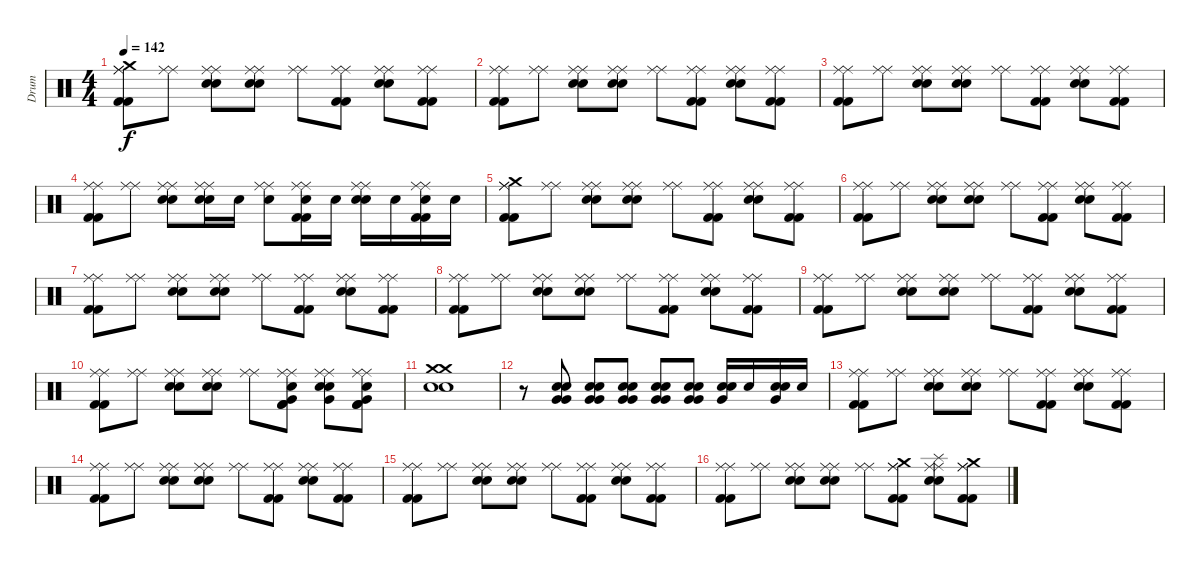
\track ("Drum" "Drum") {instrument percussion}
\staff {score}
\articulation defaults
\ts (4 4)
\tempo 142
\clef neutral
\ks c
("Kick (hit) 2" "Ride (middle)" "Crash medium (hit)" "Ride (middle)" "Kick (hit) 2").8{dy f} ("Ride (middle)" "Ride (middle)").8 ("Electric Snare (hit)" "Ride (middle)" "Electric Snare (hit)" "Ride (middle)").8 ("Electric Snare (hit)" "Ride (middle)" "Electric Snare (hit)" "Ride (middle)").8 ("Ride (middle)" "Ride (middle)").8 ("Ride (middle)" "Kick (hit) 2" "Ride (middle)" "Kick (hit) 2").8 ("Ride (middle)" "Electric Snare (hit)" "Ride (middle)" "Electric Snare (hit)").8 ("Ride (middle)" "Kick (hit) 2" "Ride (middle)" "Kick (hit) 2").8 |
("Kick (hit) 2" "Ride (middle)" "Ride (middle)" "Kick (hit) 2").8 ("Ride (middle)" "Ride (middle)").8 ("Electric Snare (hit)" "Ride (middle)" "Electric Snare (hit)" "Ride (middle)").8 ("Electric Snare (hit)" "Ride (middle)" "Electric Snare (hit)" "Ride (middle)").8 ("Ride (middle)" "Ride (middle)").8 ("Ride (middle)" "Kick (hit) 2" "Ride (middle)" "Kick (hit) 2").8 ("Ride (middle)" "Electric Snare (hit)" "Ride (middle)" "Electric Snare (hit)").8 ("Ride (middle)" "Kick (hit) 2" "Ride (middle)" "Kick (hit) 2").8 |
("Kick (hit) 2" "Ride (middle)" "Ride (middle)" "Kick (hit) 2").8 ("Ride (middle)" "Ride (middle)").8 ("Electric Snare (hit)" "Ride (middle)" "Electric Snare (hit)" "Ride (middle)").8 ("Electric Snare (hit)" "Ride (middle)" "Electric Snare (hit)" "Ride (middle)").8 ("Ride (middle)" "Ride (middle)").8 ("Ride (middle)" "Kick (hit) 2" "Ride (middle)" "Kick (hit) 2").8 ("Ride (middle)" "Electric Snare (hit)" "Ride (middle)" "Electric Snare (hit)").8 ("Ride (middle)" "Kick (hit) 2" "Ride (middle)" "Kick (hit) 2").8 |
("Ride (middle)" "Kick (hit) 2" "Kick (hit) 2" "Ride (middle)").8 ("Ride (middle)" "Ride (middle)").8 ("Electric Snare (hit)" "Ride (middle)" "Electric Snare (hit)" "Ride (middle)").8 ("Ride (middle)" "Electric Snare (hit)" "Electric Snare (hit)" "Ride (middle)").16 "Electric Snare (hit)".16 ("Ride (middle)" "Electric Snare (hit)" "Ride (middle)").8 ("Ride (middle)" "Kick (hit) 2" "Electric Snare (hit)" "Ride (middle)" "Kick (hit) 2").16 "Electric Snare (hit)".16 ("Ride (middle)" "Electric Snare (hit)" "Ride (middle)" "Electric Snare (hit)").16 "Electric Snare (hit)".16 ("Ride (middle)" "Kick (hit) 2" "Electric Snare (hit)" "Ride (middle)" "Kick (hit) 2").16 "Electric Snare (hit)".16 |
("Crash medium (hit)" "Ride (middle)" "Kick (hit) 2" "Kick (hit) 2" "Ride (middle)").8 ("Ride (middle)" "Ride (middle)").8 ("Electric Snare (hit)" "Ride (middle)" "Electric Snare (hit)" "Ride (middle)").8 ("Electric Snare (hit)" "Ride (middle)" "Electric Snare (hit)" "Ride (middle)").8 ("Ride (middle)" "Ride (middle)").8 ("Ride (middle)" "Kick (hit) 2" "Ride (middle)" "Kick (hit) 2").8 ("Ride (middle)" "Electric Snare (hit)" "Ride (middle)" "Electric Snare (hit)").8 ("Ride (middle)" "Kick (hit) 2" "Ride (middle)" "Kick (hit) 2").8 |
("Ride (middle)" "Kick (hit) 2" "Kick (hit) 2" "Ride (middle)").8 ("Ride (middle)" "Ride (middle)").8 ("Electric Snare (hit)" "Ride (middle)" "Electric Snare (hit)" "Ride (middle)").8 ("Electric Snare (hit)" "Ride (middle)" "Electric Snare (hit)" "Ride (middle)").8 ("Ride (middle)" "Ride (middle)").8 ("Ride (middle)" "Kick (hit) 2" "Ride (middle)" "Kick (hit) 2").8 ("Ride (middle)" "Electric Snare (hit)" "Ride (middle)" "Electric Snare (hit)").8 ("Ride (middle)" "Kick (hit) 2" "Ride (middle)" "Kick (hit) 2").8 |
("Ride (middle)" "Kick (hit) 2" "Kick (hit) 2" "Ride (middle)").8 ("Ride (middle)" "Ride (middle)").8 ("Electric Snare (hit)" "Ride (middle)" "Electric Snare (hit)" "Ride (middle)").8 ("Electric Snare (hit)" "Ride (middle)" "Electric Snare (hit)" "Ride (middle)").8 ("Ride (middle)" "Ride (middle)").8 ("Ride (middle)" "Kick (hit) 2" "Ride (middle)" "Kick (hit) 2").8 ("Ride (middle)" "Electric Snare (hit)" "Ride (middle)" "Electric Snare (hit)").8 ("Ride (middle)" "Kick (hit) 2" "Ride (middle)" "Kick (hit) 2").8 |
("Ride (middle)" "Kick (hit) 2" "Kick (hit) 2" "Ride (middle)").8 ("Ride (middle)" "Ride (middle)").8 ("Electric Snare (hit)" "Ride (middle)" "Electric Snare (hit)" "Ride (middle)").8 ("Electric Snare (hit)" "Ride (middle)" "Electric Snare (hit)" "Ride (middle)").8 ("Ride (middle)" "Ride (middle)").8 ("Ride (middle)" "Kick (hit) 2" "Ride (middle)" "Kick (hit) 2").8 ("Ride (middle)" "Electric Snare (hit)" "Ride (middle)" "Electric Snare (hit)").8 ("Ride (middle)" "Kick (hit) 2" "Ride (middle)" "Kick (hit) 2").8 |
("Ride (middle)" "Kick (hit) 2" "Kick (hit) 2" "Ride (middle)").8 ("Ride (middle)" "Ride (middle)").8 ("Electric Snare (hit)" "Ride (middle)" "Electric Snare (hit)" "Ride (middle)").8 ("Electric Snare (hit)" "Ride (middle)" "Electric Snare (hit)" "Ride (middle)").8 ("Ride (middle)" "Ride (middle)").8 ("Ride (middle)" "Kick (hit) 2" "Ride (middle)" "Kick (hit) 2").8 ("Ride (middle)" "Electric Snare (hit)" "Ride (middle)" "Electric Snare (hit)").8 ("Ride (middle)" "Kick (hit) 2" "Ride (middle)" "Kick (hit) 2").8 |
("Ride (middle)" "Kick (hit) 2" "Kick (hit) 2" "Ride (middle)").8 ("Ride (middle)" "Ride (middle)").8 ("Electric Snare (hit)" "Ride (middle)" "Electric Snare (hit)" "Ride (middle)").8 ("Electric Snare (hit)" "Ride (middle)" "Electric Snare (hit)" "Ride (middle)").8 ("Ride (middle)" "Ride (middle)").8 ("Ride (middle)" "Kick (hit) 2" "Electric Snare (hit)" "Very Low Tom (hit)" "Ride (middle)" "Kick (hit) 2").8 ("Ride (middle)" "Electric Snare (hit)" "Very Low Tom (hit)" "Ride (middle)" "Electric Snare (hit)").8 ("Ride (middle)" "Kick (hit) 2" "Electric Snare (hit)" "Very Low Tom (hit)" "Ride (middle)" "Kick (hit) 2").8 |
("Crash medium (hit)" "Electric Snare (hit)" "Crash medium (hit)" "Electric Snare (hit)").1 |
r.8 ("Electric Snare (hit)" "Very Low Tom (hit)" "Electric Snare (hit)" "Very Low Tom (hit)").8 ("Very Low Tom (hit)" "Electric Snare (hit)" "Electric Snare (hit)" "Very Low Tom (hit)").8 ("Very Low Tom (hit)" "Electric Snare (hit)" "Electric Snare (hit)" "Very Low Tom (hit)").8 ("Very Low Tom (hit)" "Electric Snare (hit)" "Electric Snare (hit)" "Very Low Tom (hit)").8 ("Very Low Tom (hit)" "Electric Snare (hit)" "Electric Snare (hit)" "Very Low Tom (hit)").8 ("Electric Snare (hit)" "Electric Snare (hit)" "Very Low Tom (hit)").16 "Electric Snare (hit)".16 ("Electric Snare (hit)" "Electric Snare (hit)" "Very Low Tom (hit)").16 "Electric Snare (hit)".16 |
("Kick (hit) 2" "Ride (middle)" "Ride (middle)" "Kick (hit) 2").8 ("Ride (middle)" "Ride (middle)").8 ("Electric Snare (hit)" "Ride (middle)" "Electric Snare (hit)" "Ride (middle)").8 ("Electric Snare (hit)" "Ride (middle)" "Electric Snare (hit)" "Ride (middle)").8 ("Ride (middle)" "Ride (middle)").8 ("Ride (middle)" "Kick (hit) 2" "Ride (middle)" "Kick (hit) 2").8 ("Ride (middle)" "Electric Snare (hit)" "Ride (middle)" "Electric Snare (hit)").8 ("Ride (middle)" "Kick (hit) 2" "Ride (middle)" "Kick (hit) 2").8 |
("Kick (hit) 2" "Ride (middle)" "Ride (middle)" "Kick (hit) 2").8 ("Ride (middle)" "Ride (middle)").8 ("Electric Snare (hit)" "Ride (middle)" "Electric Snare (hit)" "Ride (middle)").8 ("Electric Snare (hit)" "Ride (middle)" "Electric Snare (hit)" "Ride (middle)").8 ("Ride (middle)" "Ride (middle)").8 ("Ride (middle)" "Kick (hit) 2" "Ride (middle)" "Kick (hit) 2").8 ("Ride (middle)" "Electric Snare (hit)" "Ride (middle)" "Electric Snare (hit)").8 ("Ride (middle)" "Kick (hit) 2" "Ride (middle)" "Kick (hit) 2").8 |
("Kick (hit) 2" "Ride (middle)" "Ride (middle)" "Kick (hit) 2").8 ("Ride (middle)" "Ride (middle)").8 ("Electric Snare (hit)" "Ride (middle)" "Electric Snare (hit)" "Ride (middle)").8 ("Electric Snare (hit)" "Ride (middle)" "Electric Snare (hit)" "Ride (middle)").8 ("Ride (middle)" "Ride (middle)").8 ("Ride (middle)" "Kick (hit) 2" "Ride (middle)" "Kick (hit) 2").8 ("Ride (middle)" "Electric Snare (hit)" "Ride (middle)" "Electric Snare (hit)").8 ("Ride (middle)" "Kick (hit) 2" "Ride (middle)" "Kick (hit) 2").8 |
("Kick (hit) 2" "Ride (middle)" "Ride (middle)" "Kick (hit) 2").8 ("Ride (middle)" "Ride (middle)").8 ("Electric Snare (hit)" "Ride (middle)" "Electric Snare (hit)" "Ride (middle)").8 ("Electric Snare (hit)" "Ride (middle)" "Electric Snare (hit)" "Ride (middle)").8 ("Ride (middle)" "Ride (middle)").8 ("Ride (middle)" "Kick (hit) 2" "Ride (middle)" "Kick (hit) 2" "Crash medium (hit)").8 ("Ride (middle)" "Electric Snare (hit)" "Ride (middle)" "Electric Snare (hit)" "Splash (hit)").8 ("Ride (middle)" "Kick (hit) 2" "Ride (middle)" "Kick (hit) 2" "Crash medium (hit)").8
